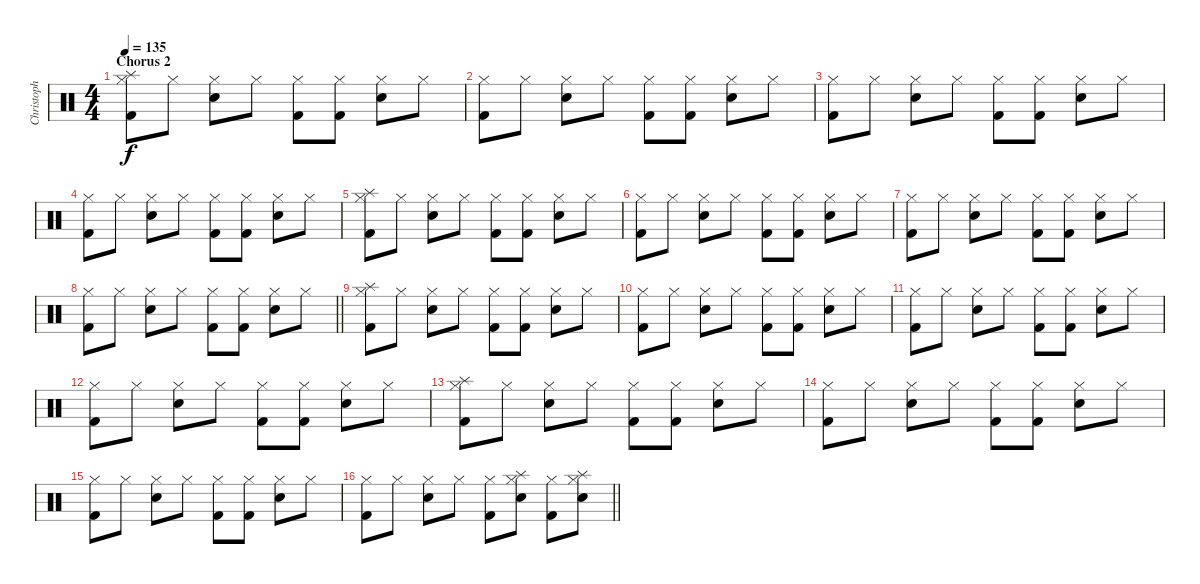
\track ("Christoph Schneider" "Christoph ") {instrument percussion}
\staff {score}
\articulation defaults
\ts (4 4)
\section ("" "Chorus 2")
\tempo 135
\clef neutral
\ks c
("Splash (hit)" "Hi-Hat (closed)" "Kick (hit) 2").8{dy f} "Hi-Hat (closed)".8 ("Hi-Hat (closed)" "Electric Snare (hit)").8 "Hi-Hat (closed)".8 ("Hi-Hat (closed)" "Kick (hit) 2").8 ("Hi-Hat (closed)" "Kick (hit) 2").8 ("Hi-Hat (closed)" "Electric Snare (hit)").8 "Hi-Hat (closed)".8 |
("Hi-Hat (closed)" "Kick (hit) 2").8 "Hi-Hat (closed)".8 ("Hi-Hat (closed)" "Electric Snare (hit)").8 "Hi-Hat (closed)".8 ("Hi-Hat (closed)" "Kick (hit) 2").8 ("Hi-Hat (closed)" "Kick (hit) 2").8 ("Hi-Hat (closed)" "Electric Snare (hit)").8 "Hi-Hat (closed)".8 |
("Hi-Hat (closed)" "Kick (hit) 2").8 "Hi-Hat (closed)".8 ("Hi-Hat (closed)" "Electric Snare (hit)").8 "Hi-Hat (closed)".8 ("Hi-Hat (closed)" "Kick (hit) 2").8 ("Hi-Hat (closed)" "Kick (hit) 2").8 ("Hi-Hat (closed)" "Electric Snare (hit)").8 "Hi-Hat (closed)".8 |
("Hi-Hat (closed)" "Kick (hit) 2").8 "Hi-Hat (closed)".8 ("Hi-Hat (closed)" "Electric Snare (hit)").8 "Hi-Hat (closed)".8 ("Hi-Hat (closed)" "Kick (hit) 2").8 ("Hi-Hat (closed)" "Kick (hit) 2").8 ("Hi-Hat (closed)" "Electric Snare (hit)").8 "Hi-Hat (closed)".8 |
("Splash (hit)" "Hi-Hat (closed)" "Kick (hit) 2").8 "Hi-Hat (closed)".8 ("Hi-Hat (closed)" "Electric Snare (hit)").8 "Hi-Hat (closed)".8 ("Hi-Hat (closed)" "Kick (hit) 2").8 ("Hi-Hat (closed)" "Kick (hit) 2").8 ("Hi-Hat (closed)" "Electric Snare (hit)").8 "Hi-Hat (closed)".8 |
("Hi-Hat (closed)" "Kick (hit) 2").8 "Hi-Hat (closed)".8 ("Hi-Hat (closed)" "Electric Snare (hit)").8 "Hi-Hat (closed)".8 ("Hi-Hat (closed)" "Kick (hit) 2").8 ("Hi-Hat (closed)" "Kick (hit) 2").8 ("Hi-Hat (closed)" "Electric Snare (hit)").8 "Hi-Hat (closed)".8 |
("Hi-Hat (closed)" "Kick (hit) 2").8 "Hi-Hat (closed)".8 ("Hi-Hat (closed)" "Electric Snare (hit)").8 "Hi-Hat (closed)".8 ("Hi-Hat (closed)" "Kick (hit) 2").8 ("Hi-Hat (closed)" "Kick (hit) 2").8 ("Hi-Hat (closed)" "Electric Snare (hit)").8 "Hi-Hat (closed)".8 |
\barLineRight lightlight
("Hi-Hat (closed)" "Kick (hit) 2").8 "Hi-Hat (closed)".8 ("Hi-Hat (closed)" "Electric Snare (hit)").8 "Hi-Hat (closed)".8 ("Hi-Hat (closed)" "Kick (hit) 2").8 ("Hi-Hat (closed)" "Kick (hit) 2").8 ("Hi-Hat (closed)" "Electric Snare (hit)").8 "Hi-Hat (closed)".8 |
("Splash (hit)" "Hi-Hat (closed)" "Kick (hit) 2").8 "Hi-Hat (closed)".8 ("Hi-Hat (closed)" "Electric Snare (hit)").8 "Hi-Hat (closed)".8 ("Hi-Hat (closed)" "Kick (hit) 2").8 ("Hi-Hat (closed)" "Kick (hit) 2").8 ("Hi-Hat (closed)" "Electric Snare (hit)").8 "Hi-Hat (closed)".8 |
("Hi-Hat (closed)" "Kick (hit) 2").8 "Hi-Hat (closed)".8 ("Hi-Hat (closed)" "Electric Snare (hit)").8 "Hi-Hat (closed)".8 ("Hi-Hat (closed)" "Kick (hit) 2").8 ("Hi-Hat (closed)" "Kick (hit) 2").8 ("Hi-Hat (closed)" "Electric Snare (hit)").8 "Hi-Hat (closed)".8 |
("Hi-Hat (closed)" "Kick (hit) 2").8 "Hi-Hat (closed)".8 ("Hi-Hat (closed)" "Electric Snare (hit)").8 "Hi-Hat (closed)".8 ("Hi-Hat (closed)" "Kick (hit) 2").8 ("Hi-Hat (closed)" "Kick (hit) 2").8 ("Hi-Hat (closed)" "Electric Snare (hit)").8 "Hi-Hat (closed)".8 |
("Hi-Hat (closed)" "Kick (hit) 2").8 "Hi-Hat (closed)".8 ("Hi-Hat (closed)" "Electric Snare (hit)").8 "Hi-Hat (closed)".8 ("Hi-Hat (closed)" "Kick (hit) 2").8 ("Hi-Hat (closed)" "Kick (hit) 2").8 ("Hi-Hat (closed)" "Electric Snare (hit)").8 "Hi-Hat (closed)".8 |
("Splash (hit)" "Hi-Hat (closed)" "Kick (hit) 2").8 "Hi-Hat (closed)".8 ("Hi-Hat (closed)" "Electric Snare (hit)").8 "Hi-Hat (closed)".8 ("Hi-Hat (closed)" "Kick (hit) 2").8 ("Hi-Hat (closed)" "Kick (hit) 2").8 ("Hi-Hat (closed)" "Electric Snare (hit)").8 "Hi-Hat (closed)".8 |
("Hi-Hat (closed)" "Kick (hit) 2").8 "Hi-Hat (closed)".8 ("Hi-Hat (closed)" "Electric Snare (hit)").8 "Hi-Hat (closed)".8 ("Hi-Hat (closed)" "Kick (hit) 2").8 ("Hi-Hat (closed)" "Kick (hit) 2").8 ("Hi-Hat (closed)" "Electric Snare (hit)").8 "Hi-Hat (closed)".8 |
("Hi-Hat (closed)" "Kick (hit) 2").8 "Hi-Hat (closed)".8 ("Hi-Hat (closed)" "Electric Snare (hit)").8 "Hi-Hat (closed)".8 ("Hi-Hat (closed)" "Kick (hit) 2").8 ("Hi-Hat (closed)" "Kick (hit) 2").8 ("Hi-Hat (closed)" "Electric Snare (hit)").8 "Hi-Hat (closed)".8 |
\barLineRight lightlight
("Hi-Hat (closed)" "Kick (hit) 2").8 "Hi-Hat (closed)".8 ("Hi-Hat (closed)" "Electric Snare (hit)").8 "Hi-Hat (closed)".8 ("Hi-Hat (closed)" "Kick (hit) 2").8 ("Splash (hit)" "Hi-Hat (closed)" "Electric Snare (hit)").8 ("Hi-Hat (closed)" "Kick (hit) 2").8 ("Splash (hit)" "Hi-Hat (closed)" "Electric Snare (hit)").8
